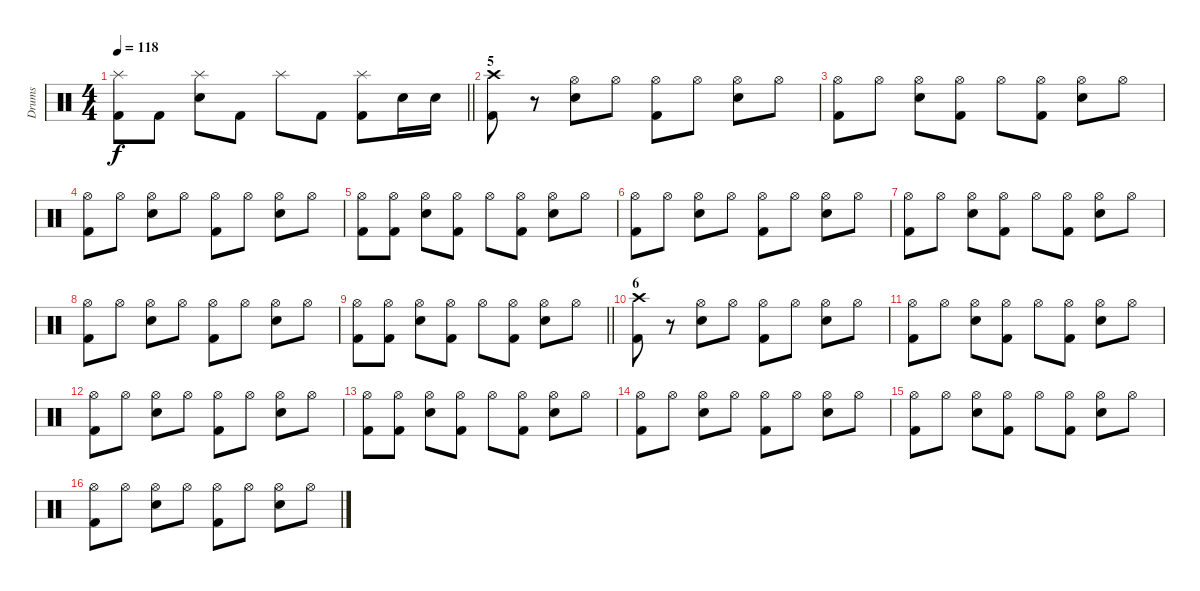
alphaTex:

\track ("Drums" "Drums") {instrument percussion}
\staff {score}
\articulation defaults
\ts (4 4)
\tempo 118
\clef neutral
\barLineRight lightlight
\ks c
("Splash (hit)" "Kick (hit) 2").8{dy f} "Kick (hit) 2".8 ("Splash (hit)" "Electric Snare (hit)").8 "Kick (hit) 2".8 "Splash (hit)".8 "Kick (hit) 2".8 ("Splash (hit)" "Kick (hit) 2").8 "Electric Snare (hit)".16 "Electric Snare (hit)".16 |
\section ("" "5")
("Crash high (hit)" "Kick (hit) 2").8 r.8 ("Hi-Hat (open)" "Electric Snare (hit)").8 "Hi-Hat (open)".8 ("Kick (hit) 2" "Hi-Hat (open)").8 "Hi-Hat (open)".8 ("Hi-Hat (open)" "Electric Snare (hit)").8 "Hi-Hat (open)".8 |
("Kick (hit) 2" "Hi-Hat (open)").8 "Hi-Hat (open)".8 ("Hi-Hat (open)" "Electric Snare (hit)").8 ("Kick (hit) 2" "Hi-Hat (open)").8 "Hi-Hat (open)".8 ("Kick (hit) 2" "Hi-Hat (open)").8 ("Hi-Hat (open)" "Electric Snare (hit)").8 "Hi-Hat (open)".8 |
("Kick (hit) 2" "Hi-Hat (open)").8 "Hi-Hat (open)".8 ("Hi-Hat (open)" "Electric Snare (hit)").8 "Hi-Hat (open)".8 ("Kick (hit) 2" "Hi-Hat (open)").8 "Hi-Hat (open)".8 ("Hi-Hat (open)" "Electric Snare (hit)").8 "Hi-Hat (open)".8 |
("Kick (hit) 2" "Hi-Hat (open)").8 ("Kick (hit) 2" "Hi-Hat (open)").8 ("Hi-Hat (open)" "Electric Snare (hit)").8 ("Kick (hit) 2" "Hi-Hat (open)").8 "Hi-Hat (open)".8 ("Kick (hit) 2" "Hi-Hat (open)").8 ("Hi-Hat (open)" "Electric Snare (hit)").8 "Hi-Hat (open)".8 |
("Kick (hit) 2" "Hi-Hat (open)").8 "Hi-Hat (open)".8 ("Hi-Hat (open)" "Electric Snare (hit)").8 "Hi-Hat (open)".8 ("Kick (hit) 2" "Hi-Hat (open)").8 "Hi-Hat (open)".8 ("Hi-Hat (open)" "Electric Snare (hit)").8 "Hi-Hat (open)".8 |
("Kick (hit) 2" "Hi-Hat (open)").8 "Hi-Hat (open)".8 ("Hi-Hat (open)" "Electric Snare (hit)").8 ("Kick (hit) 2" "Hi-Hat (open)").8 "Hi-Hat (open)".8 ("Kick (hit) 2" "Hi-Hat (open)").8 ("Hi-Hat (open)" "Electric Snare (hit)").8 "Hi-Hat (open)".8 |
("Kick (hit) 2" "Hi-Hat (open)").8 "Hi-Hat (open)".8 ("Hi-Hat (open)" "Electric Snare (hit)").8 "Hi-Hat (open)".8 ("Kick (hit) 2" "Hi-Hat (open)").8 "Hi-Hat (open)".8 ("Hi-Hat (open)" "Electric Snare (hit)").8 "Hi-Hat (open)".8 |
\barLineRight lightlight
("Kick (hit) 2" "Hi-Hat (open)").8 ("Kick (hit) 2" "Hi-Hat (open)").8 ("Hi-Hat (open)" "Electric Snare (hit)").8 ("Kick (hit) 2" "Hi-Hat (open)").8 "Hi-Hat (open)".8 ("Kick (hit) 2" "Hi-Hat (open)").8 ("Hi-Hat (open)" "Electric Snare (hit)").8 "Hi-Hat (open)".8 |
\section ("" "6")
("Crash high (hit)" "Kick (hit) 2").8 r.8 ("Hi-Hat (open)" "Electric Snare (hit)").8 "Hi-Hat (open)".8 ("Kick (hit) 2" "Hi-Hat (open)").8 "Hi-Hat (open)".8 ("Hi-Hat (open)" "Electric Snare (hit)").8 "Hi-Hat (open)".8 |
("Kick (hit) 2" "Hi-Hat (open)").8 "Hi-Hat (open)".8 ("Hi-Hat (open)" "Electric Snare (hit)").8 ("Kick (hit) 2" "Hi-Hat (open)").8 "Hi-Hat (open)".8 ("Kick (hit) 2" "Hi-Hat (open)").8 ("Hi-Hat (open)" "Electric Snare (hit)").8 "Hi-Hat (open)".8 |
("Kick (hit) 2" "Hi-Hat (open)").8 "Hi-Hat (open)".8 ("Hi-Hat (open)" "Electric Snare (hit)").8 "Hi-Hat (open)".8 ("Kick (hit) 2" "Hi-Hat (open)").8 "Hi-Hat (open)".8 ("Hi-Hat (open)" "Electric Snare (hit)").8 "Hi-Hat (open)".8 |
("Kick (hit) 2" "Hi-Hat (open)").8 ("Kick (hit) 2" "Hi-Hat (open)").8 ("Hi-Hat (open)" "Electric Snare (hit)").8 ("Kick (hit) 2" "Hi-Hat (open)").8 "Hi-Hat (open)".8 ("Kick (hit) 2" "Hi-Hat (open)").8 ("Hi-Hat (open)" "Electric Snare (hit)").8 "Hi-Hat (open)".8 |
("Kick (hit) 2" "Hi-Hat (open)").8 "Hi-Hat (open)".8 ("Hi-Hat (open)" "Electric Snare (hit)").8 "Hi-Hat (open)".8 ("Kick (hit) 2" "Hi-Hat (open)").8 "Hi-Hat (open)".8 ("Hi-Hat (open)" "Electric Snare (hit)").8 "Hi-Hat (open)".8 |
("Kick (hit) 2" "Hi-Hat (open)").8 "Hi-Hat (open)".8 ("Hi-Hat (open)" "Electric Snare (hit)").8 ("Kick (hit) 2" "Hi-Hat (open)").8 "Hi-Hat (open)".8 ("Kick (hit) 2" "Hi-Hat (open)").8 ("Hi-Hat (open)" "Electric Snare (hit)").8 "Hi-Hat (open)".8 |
("Kick (hit) 2" "Hi-Hat (open)").8 "Hi-Hat (open)".8 ("Hi-Hat (open)" "Electric Snare (hit)").8 "Hi-Hat (open)".8 ("Kick (hit) 2" "Hi-Hat (open)").8 "Hi-Hat (open)".8 ("Hi-Hat (open)" "Electric Snare (hit)").8 "Hi-Hat (open)".8
